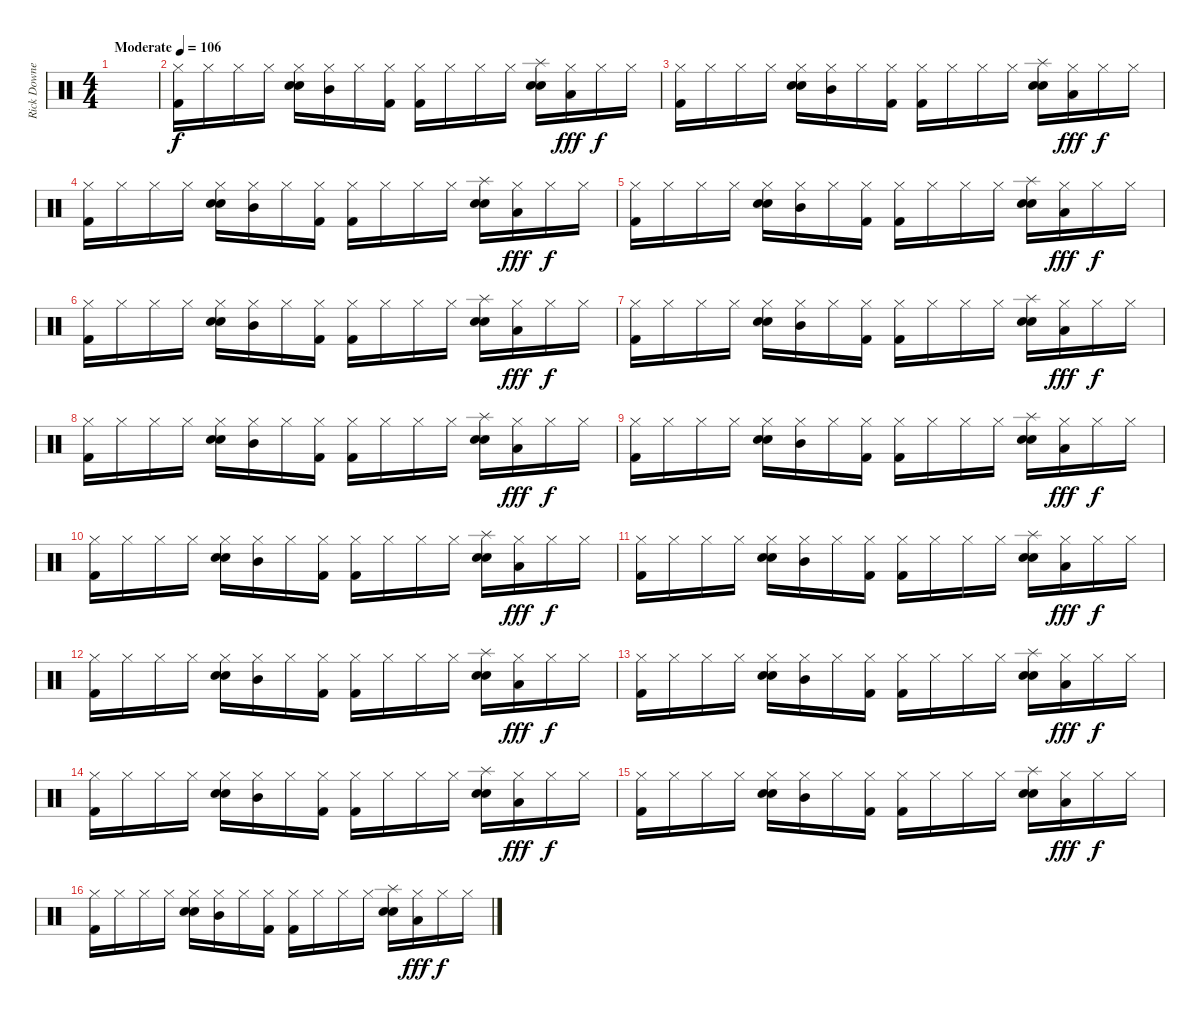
\track ("Rick Downey" "Rick Downe") {instrument percussion}
\staff {score}
\articulation defaults
\ts (4 4)
\tempo (106 "Moderate")
\clef neutral
\ks c
|
("Hi-Hat (closed)" "Kick (hit) 2").16 "Hi-Hat (closed)".16 "Hi-Hat (closed)".16 "Hi-Hat (closed)".16 ("Hi-Hat (closed)" "Electric Snare (hit)" "Snare (hit) 2").16 ("Mid Tom (hit)" "Hi-Hat (closed)").16 "Hi-Hat (closed)".16 ("Hi-Hat (closed)" "Kick (hit) 2").16 ("Hi-Hat (closed)" "Kick (hit) 2").16 "Hi-Hat (closed)".16 "Hi-Hat (closed)".16 "Hi-Hat (closed)".16 ("Splash (hit)" "Electric Snare (hit)" "Snare (hit) 2").16 ("Low Tom (hit)" "Hi-Hat (closed)").16{dy fff} "Hi-Hat (closed)".16{dy f} "Hi-Hat (closed)".16 |
("Hi-Hat (closed)" "Kick (hit) 2").16 "Hi-Hat (closed)".16 "Hi-Hat (closed)".16 "Hi-Hat (closed)".16 ("Hi-Hat (closed)" "Electric Snare (hit)" "Snare (hit) 2").16 ("Mid Tom (hit)" "Hi-Hat (closed)").16 "Hi-Hat (closed)".16 ("Hi-Hat (closed)" "Kick (hit) 2").16 ("Hi-Hat (closed)" "Kick (hit) 2").16 "Hi-Hat (closed)".16 "Hi-Hat (closed)".16 "Hi-Hat (closed)".16 ("Splash (hit)" "Electric Snare (hit)" "Snare (hit) 2").16 ("Low Tom (hit)" "Hi-Hat (closed)").16{dy fff} "Hi-Hat (closed)".16{dy f} "Hi-Hat (closed)".16 |
("Hi-Hat (closed)" "Kick (hit) 2").16 "Hi-Hat (closed)".16 "Hi-Hat (closed)".16 "Hi-Hat (closed)".16 ("Hi-Hat (closed)" "Electric Snare (hit)" "Snare (hit) 2").16 ("Mid Tom (hit)" "Hi-Hat (closed)").16 "Hi-Hat (closed)".16 ("Hi-Hat (closed)" "Kick (hit) 2").16 ("Hi-Hat (closed)" "Kick (hit) 2").16 "Hi-Hat (closed)".16 "Hi-Hat (closed)".16 "Hi-Hat (closed)".16 ("Splash (hit)" "Electric Snare (hit)" "Snare (hit) 2").16 ("Low Tom (hit)" "Hi-Hat (closed)").16{dy fff} "Hi-Hat (closed)".16{dy f} "Hi-Hat (closed)".16 |
("Hi-Hat (closed)" "Kick (hit) 2").16 "Hi-Hat (closed)".16 "Hi-Hat (closed)".16 "Hi-Hat (closed)".16 ("Hi-Hat (closed)" "Electric Snare (hit)" "Snare (hit) 2").16 ("Mid Tom (hit)" "Hi-Hat (closed)").16 "Hi-Hat (closed)".16 ("Hi-Hat (closed)" "Kick (hit) 2").16 ("Hi-Hat (closed)" "Kick (hit) 2").16 "Hi-Hat (closed)".16 "Hi-Hat (closed)".16 "Hi-Hat (closed)".16 ("Splash (hit)" "Electric Snare (hit)" "Snare (hit) 2").16 ("Low Tom (hit)" "Hi-Hat (closed)").16{dy fff} "Hi-Hat (closed)".16{dy f} "Hi-Hat (closed)".16 |
("Hi-Hat (closed)" "Kick (hit) 2").16 "Hi-Hat (closed)".16 "Hi-Hat (closed)".16 "Hi-Hat (closed)".16 ("Hi-Hat (closed)" "Electric Snare (hit)" "Snare (hit) 2").16 ("Mid Tom (hit)" "Hi-Hat (closed)").16 "Hi-Hat (closed)".16 ("Hi-Hat (closed)" "Kick (hit) 2").16 ("Hi-Hat (closed)" "Kick (hit) 2").16 "Hi-Hat (closed)".16 "Hi-Hat (closed)".16 "Hi-Hat (closed)".16 ("Splash (hit)" "Electric Snare (hit)" "Snare (hit) 2").16 ("Low Tom (hit)" "Hi-Hat (closed)").16{dy fff} "Hi-Hat (closed)".16{dy f} "Hi-Hat (closed)".16 |
("Hi-Hat (closed)" "Kick (hit) 2").16 "Hi-Hat (closed)".16 "Hi-Hat (closed)".16 "Hi-Hat (closed)".16 ("Hi-Hat (closed)" "Electric Snare (hit)" "Snare (hit) 2").16 ("Mid Tom (hit)" "Hi-Hat (closed)").16 "Hi-Hat (closed)".16 ("Hi-Hat (closed)" "Kick (hit) 2").16 ("Hi-Hat (closed)" "Kick (hit) 2").16 "Hi-Hat (closed)".16 "Hi-Hat (closed)".16 "Hi-Hat (closed)".16 ("Splash (hit)" "Electric Snare (hit)" "Snare (hit) 2").16 ("Low Tom (hit)" "Hi-Hat (closed)").16{dy fff} "Hi-Hat (closed)".16{dy f} "Hi-Hat (closed)".16 |
("Hi-Hat (closed)" "Kick (hit) 2").16 "Hi-Hat (closed)".16 "Hi-Hat (closed)".16 "Hi-Hat (closed)".16 ("Hi-Hat (closed)" "Electric Snare (hit)" "Snare (hit) 2").16 ("Mid Tom (hit)" "Hi-Hat (closed)").16 "Hi-Hat (closed)".16 ("Hi-Hat (closed)" "Kick (hit) 2").16 ("Hi-Hat (closed)" "Kick (hit) 2").16 "Hi-Hat (closed)".16 "Hi-Hat (closed)".16 "Hi-Hat (closed)".16 ("Splash (hit)" "Electric Snare (hit)" "Snare (hit) 2").16 ("Low Tom (hit)" "Hi-Hat (closed)").16{dy fff} "Hi-Hat (closed)".16{dy f} "Hi-Hat (closed)".16 |
("Hi-Hat (closed)" "Kick (hit) 2").16 "Hi-Hat (closed)".16 "Hi-Hat (closed)".16 "Hi-Hat (closed)".16 ("Hi-Hat (closed)" "Electric Snare (hit)" "Snare (hit) 2").16 ("Mid Tom (hit)" "Hi-Hat (closed)").16 "Hi-Hat (closed)".16 ("Hi-Hat (closed)" "Kick (hit) 2").16 ("Hi-Hat (closed)" "Kick (hit) 2").16 "Hi-Hat (closed)".16 "Hi-Hat (closed)".16 "Hi-Hat (closed)".16 ("Splash (hit)" "Electric Snare (hit)" "Snare (hit) 2").16 ("Low Tom (hit)" "Hi-Hat (closed)").16{dy fff} "Hi-Hat (closed)".16{dy f} "Hi-Hat (closed)".16 |
("Hi-Hat (closed)" "Kick (hit) 2").16 "Hi-Hat (closed)".16 "Hi-Hat (closed)".16 "Hi-Hat (closed)".16 ("Hi-Hat (closed)" "Electric Snare (hit)" "Snare (hit) 2").16 ("Mid Tom (hit)" "Hi-Hat (closed)").16 "Hi-Hat (closed)".16 ("Hi-Hat (closed)" "Kick (hit) 2").16 ("Hi-Hat (closed)" "Kick (hit) 2").16 "Hi-Hat (closed)".16 "Hi-Hat (closed)".16 "Hi-Hat (closed)".16 ("Splash (hit)" "Electric Snare (hit)" "Snare (hit) 2").16 ("Low Tom (hit)" "Hi-Hat (closed)").16{dy fff} "Hi-Hat (closed)".16{dy f} "Hi-Hat (closed)".16 |
("Hi-Hat (closed)" "Kick (hit) 2").16 "Hi-Hat (closed)".16 "Hi-Hat (closed)".16 "Hi-Hat (closed)".16 ("Hi-Hat (closed)" "Electric Snare (hit)" "Snare (hit) 2").16 ("Mid Tom (hit)" "Hi-Hat (closed)").16 "Hi-Hat (closed)".16 ("Hi-Hat (closed)" "Kick (hit) 2").16 ("Hi-Hat (closed)" "Kick (hit) 2").16 "Hi-Hat (closed)".16 "Hi-Hat (closed)".16 "Hi-Hat (closed)".16 ("Splash (hit)" "Electric Snare (hit)" "Snare (hit) 2").16 ("Low Tom (hit)" "Hi-Hat (closed)").16{dy fff} "Hi-Hat (closed)".16{dy f} "Hi-Hat (closed)".16 |
("Hi-Hat (closed)" "Kick (hit) 2").16 "Hi-Hat (closed)".16 "Hi-Hat (closed)".16 "Hi-Hat (closed)".16 ("Hi-Hat (closed)" "Electric Snare (hit)" "Snare (hit) 2").16 ("Mid Tom (hit)" "Hi-Hat (closed)").16 "Hi-Hat (closed)".16 ("Hi-Hat (closed)" "Kick (hit) 2").16 ("Hi-Hat (closed)" "Kick (hit) 2").16 "Hi-Hat (closed)".16 "Hi-Hat (closed)".16 "Hi-Hat (closed)".16 ("Splash (hit)" "Electric Snare (hit)" "Snare (hit) 2").16 ("Low Tom (hit)" "Hi-Hat (closed)").16{dy fff} "Hi-Hat (closed)".16{dy f} "Hi-Hat (closed)".16 |
("Hi-Hat (closed)" "Kick (hit) 2").16 "Hi-Hat (closed)".16 "Hi-Hat (closed)".16 "Hi-Hat (closed)".16 ("Hi-Hat (closed)" "Electric Snare (hit)" "Snare (hit) 2").16 ("Mid Tom (hit)" "Hi-Hat (closed)").16 "Hi-Hat (closed)".16 ("Hi-Hat (closed)" "Kick (hit) 2").16 ("Hi-Hat (closed)" "Kick (hit) 2").16 "Hi-Hat (closed)".16 "Hi-Hat (closed)".16 "Hi-Hat (closed)".16 ("Splash (hit)" "Electric Snare (hit)" "Snare (hit) 2").16 ("Low Tom (hit)" "Hi-Hat (closed)").16{dy fff} "Hi-Hat (closed)".16{dy f} "Hi-Hat (closed)".16 |
("Hi-Hat (closed)" "Kick (hit) 2").16 "Hi-Hat (closed)".16 "Hi-Hat (closed)".16 "Hi-Hat (closed)".16 ("Hi-Hat (closed)" "Electric Snare (hit)" "Snare (hit) 2").16 ("Mid Tom (hit)" "Hi-Hat (closed)").16 "Hi-Hat (closed)".16 ("Hi-Hat (closed)" "Kick (hit) 2").16 ("Hi-Hat (closed)" "Kick (hit) 2").16 "Hi-Hat (closed)".16 "Hi-Hat (closed)".16 "Hi-Hat (closed)".16 ("Splash (hit)" "Electric Snare (hit)" "Snare (hit) 2").16 ("Low Tom (hit)" "Hi-Hat (closed)").16{dy fff} "Hi-Hat (closed)".16{dy f} "Hi-Hat (closed)".16 |
("Hi-Hat (closed)" "Kick (hit) 2").16 "Hi-Hat (closed)".16 "Hi-Hat (closed)".16 "Hi-Hat (closed)".16 ("Hi-Hat (closed)" "Electric Snare (hit)" "Snare (hit) 2").16 ("Mid Tom (hit)" "Hi-Hat (closed)").16 "Hi-Hat (closed)".16 ("Hi-Hat (closed)" "Kick (hit) 2").16 ("Hi-Hat (closed)" "Kick (hit) 2").16 "Hi-Hat (closed)".16 "Hi-Hat (closed)".16 "Hi-Hat (closed)".16 ("Splash (hit)" "Electric Snare (hit)" "Snare (hit) 2").16 ("Low Tom (hit)" "Hi-Hat (closed)").16{dy fff} "Hi-Hat (closed)".16{dy f} "Hi-Hat (closed)".16 |
("Hi-Hat (closed)" "Kick (hit) 2").16 "Hi-Hat (closed)".16 "Hi-Hat (closed)".16 "Hi-Hat (closed)".16 ("Hi-Hat (closed)" "Electric Snare (hit)" "Snare (hit) 2").16 ("Mid Tom (hit)" "Hi-Hat (closed)").16 "Hi-Hat (closed)".16 ("Hi-Hat (closed)" "Kick (hit) 2").16 ("Hi-Hat (closed)" "Kick (hit) 2").16 "Hi-Hat (closed)".16 "Hi-Hat (closed)".16 "Hi-Hat (closed)".16 ("Splash (hit)" "Electric Snare (hit)" "Snare (hit) 2").16 ("Low Tom (hit)" "Hi-Hat (closed)").16{dy fff} "Hi-Hat (closed)".16{dy f} "Hi-Hat (closed)".16
